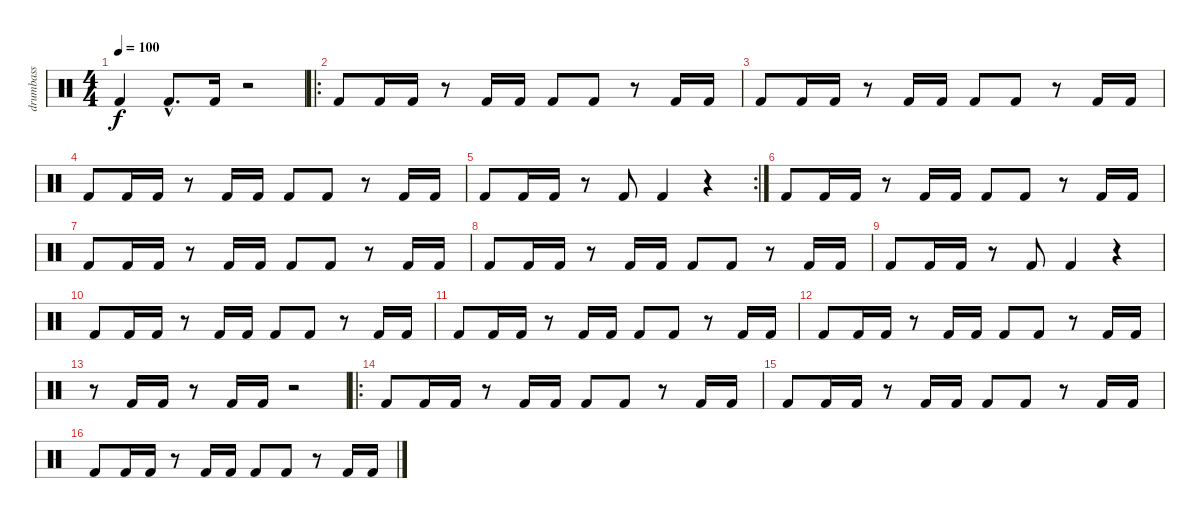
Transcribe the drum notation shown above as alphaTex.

\track ("drumbass" "drumbass") {instrument percussion}
\staff {score}
\articulation defaults
\ts (4 4)
\tempo 100
\clef neutral
\ks c "Kick (hit) 2".4{dy f} "Kick (hit) 2"{hac}.8{d} "Kick (hit) 2".16
r.2 |
\ro "Kick (hit) 2".8 "Kick (hit) 2".16 "Kick (hit) 2".16
r.8 "Kick (hit) 2".16 "Kick (hit) 2".16 "Kick (hit) 2".8 "Kick (hit) 2".8 r.8 "Kick (hit) 2".16 "Kick (hit) 2".16 |
"Kick (hit) 2".8 "Kick (hit) 2".16 "Kick (hit) 2".16 r.8 "Kick (hit) 2".16 "Kick (hit) 2".16 "Kick (hit) 2".8 "Kick (hit) 2".8 r.8 "Kick (hit) 2".16 "Kick (hit) 2".16 |
"Kick (hit) 2".8 "Kick (hit) 2".16 "Kick (hit) 2".16 r.8 "Kick (hit) 2".16 "Kick (hit) 2".16 "Kick (hit) 2".8 "Kick (hit) 2".8 r.8 "Kick (hit) 2".16 "Kick (hit) 2".16 |
\rc 2 "Kick (hit) 2".8 "Kick (hit) 2".16 "Kick (hit) 2".16
r.8 "Kick (hit) 2".8 "Kick (hit) 2".4 r.4 |
"Kick (hit) 2".8 "Kick (hit) 2".16 "Kick (hit) 2".16 r.8 "Kick (hit) 2".16 "Kick (hit) 2".16 "Kick (hit) 2".8 "Kick (hit) 2".8 r.8 "Kick (hit) 2".16 "Kick (hit) 2".16 |
"Kick (hit) 2".8 "Kick (hit) 2".16 "Kick (hit) 2".16 r.8 "Kick (hit) 2".16 "Kick (hit) 2".16 "Kick (hit) 2".8 "Kick (hit) 2".8 r.8 "Kick (hit) 2".16 "Kick (hit) 2".16 |
"Kick (hit) 2".8 "Kick (hit) 2".16 "Kick (hit) 2".16 r.8 "Kick (hit) 2".16 "Kick (hit) 2".16 "Kick (hit) 2".8 "Kick (hit) 2".8 r.8 "Kick (hit) 2".16 "Kick (hit) 2".16 |
"Kick (hit) 2".8 "Kick (hit) 2".16 "Kick (hit) 2".16 r.8 "Kick (hit) 2".8 "Kick (hit) 2".4 r.4 |
"Kick (hit) 2".8 "Kick (hit) 2".16 "Kick (hit) 2".16 r.8 "Kick (hit) 2".16 "Kick (hit) 2".16 "Kick (hit) 2".8 "Kick (hit) 2".8 r.8 "Kick (hit) 2".16 "Kick (hit) 2".16 |
"Kick (hit) 2".8 "Kick (hit) 2".16 "Kick (hit) 2".16 r.8 "Kick (hit) 2".16 "Kick (hit) 2".16 "Kick (hit) 2".8 "Kick (hit) 2".8 r.8 "Kick (hit) 2".16 "Kick (hit) 2".16 |
"Kick (hit) 2".8 "Kick (hit) 2".16 "Kick (hit) 2".16 r.8 "Kick (hit) 2".16 "Kick (hit) 2".16 "Kick (hit) 2".8 "Kick (hit) 2".8 r.8 "Kick (hit) 2".16 "Kick (hit) 2".16 |
r.8 "Kick (hit) 2".16 "Kick (hit) 2".16 r.8 "Kick (hit) 2".16 "Kick (hit) 2".16 r.2 |
\ro "Kick (hit) 2".8 "Kick (hit) 2".16 "Kick (hit) 2".16
r.8 "Kick (hit) 2".16 "Kick (hit) 2".16 "Kick (hit) 2".8 "Kick (hit) 2".8 r.8 "Kick (hit) 2".16 "Kick (hit) 2".16 |
"Kick (hit) 2".8 "Kick (hit) 2".16 "Kick (hit) 2".16 r.8 "Kick (hit) 2".16 "Kick (hit) 2".16 "Kick (hit) 2".8 "Kick (hit) 2".8 r.8 "Kick (hit) 2".16 "Kick (hit) 2".16 |
"Kick (hit) 2".8 "Kick (hit) 2".16 "Kick (hit) 2".16 r.8 "Kick (hit) 2".16 "Kick (hit) 2".16 "Kick (hit) 2".8 "Kick (hit) 2".8 r.8 "Kick (hit) 2".16 "Kick (hit) 2".16
